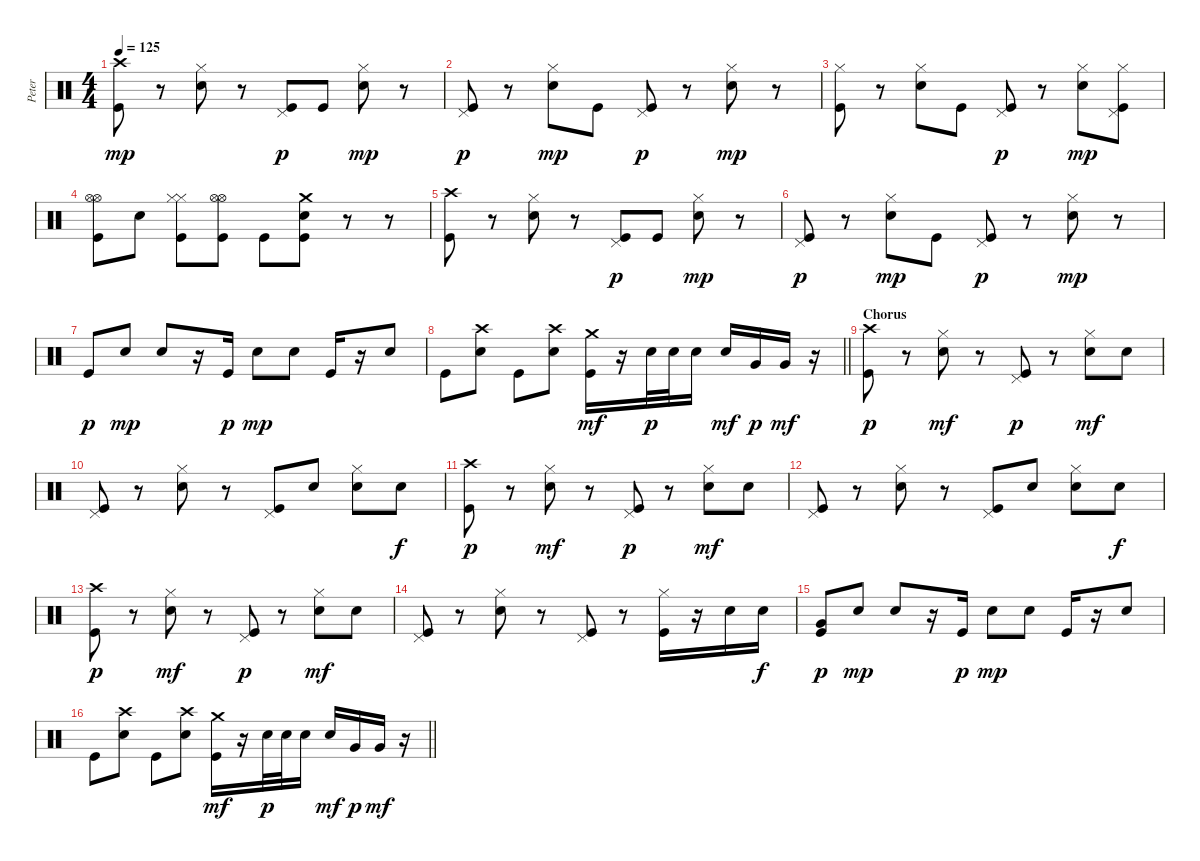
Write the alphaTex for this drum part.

\track ("Peter" "Peter") {instrument percussion}
\staff {score}
\articulation defaults
\ts (4 4)
\tempo 125
\clef neutral
\ks c
("Crash high (hit)" "Kick (hit)").8{dy mp} r.8 ("Hi-Hat (closed)" "Snare (hit) 2").8 r.8 ("Pedal Hi-Hat (hit)" "Kick (hit)").8{dy p} "Kick (hit)".8 ("Hi-Hat (closed)" "Snare (hit) 2").8{dy mp} r.8 |
("Pedal Hi-Hat (hit)" "Kick (hit)").8{dy p} r.8 ("Hi-Hat (closed)" "Snare (hit) 2").8{dy mp} "Kick (hit)".8 ("Pedal Hi-Hat (hit)" "Kick (hit)").8{dy p} r.8 ("Hi-Hat (closed)" "Snare (hit) 2").8{dy mp} r.8 |
("Hi-Hat (closed)" "Kick (hit)").8 r.8 ("Hi-Hat (closed)" "Snare (hit) 2").8 "Kick (hit)".8 ("Pedal Hi-Hat (hit)" "Kick (hit)").8{dy p} r.8 ("Hi-Hat (closed)" "Snare (hit) 2").8{dy mp} ("Hi-Hat (closed)" "Pedal Hi-Hat (hit)" "Kick (hit)").8 |
("Hi-Hat (open)" "Hi-Hat (open)" "Kick (hit)").8 "Snare (hit) 2".8 ("Hi-Hat (closed)" "Hi-Hat (closed)" "Kick (hit)").8 ("Hi-Hat (open)" "Hi-Hat (open)" "Kick (hit)").8 "Kick (hit)".8 ("Crash medium (hit)" "Snare (hit) 2" "Kick (hit)").8 r.8 r.8 |
("Crash high (hit)" "Kick (hit)").8 r.8 ("Hi-Hat (closed)" "Snare (hit) 2").8 r.8 ("Pedal Hi-Hat (hit)" "Kick (hit)").8{dy p} "Kick (hit)".8 ("Hi-Hat (closed)" "Snare (hit) 2").8{dy mp} r.8 |
("Pedal Hi-Hat (hit)" "Kick (hit)").8{dy p} r.8 ("Hi-Hat (closed)" "Snare (hit) 2").8{dy mp} "Kick (hit)".8 ("Pedal Hi-Hat (hit)" "Kick (hit)").8{dy p} r.8 ("Hi-Hat (closed)" "Snare (hit) 2").8{dy mp} r.8 |
"Kick (hit)".8{dy p} "Snare (hit) 2".8{dy mp} "Snare (hit) 2".8 r.16 "Kick (hit)".16{dy p} "Snare (hit) 2".8{dy mp} "Snare (hit) 2".8 "Kick (hit)".16 r.16 "Snare (hit) 2".8 |
\barLineRight lightlight "Kick (hit)".8
("Crash high (hit)" "Snare (hit) 2").8 "Kick (hit)".8 ("Crash high (hit)" "Snare (hit) 2").8 ("Crash medium (hit)" "Kick (hit)").16{dy mf} r.16 "Snare (hit) 2".32{dy p} "Snare (hit) 2".32 "Snare (hit) 2".16 "Snare (hit) 2".16{dy mf} "Very Low Tom (hit)".16{dy p} "Very Low Tom (hit)".16{dy mf} r.16 |
\section ("" "Chorus")
("Crash high (hit)" "Kick (hit)").8{dy p} r.8 ("Hi-Hat (closed)" "Snare (hit) 2").8{dy mf} r.8 ("Pedal Hi-Hat (hit)" "Kick (hit)").8{dy p} r.8 ("Hi-Hat (closed)" "Snare (hit) 2").8{dy mf} "Snare (hit) 2".8 |
("Pedal Hi-Hat (hit)" "Kick (hit)").8 r.8 ("Hi-Hat (closed)" "Snare (hit) 2").8 r.8 ("Pedal Hi-Hat (hit)" "Kick (hit)").8 "Snare (hit) 2".8 ("Hi-Hat (closed)" "Snare (hit) 2").8 "Snare (hit) 2".8{dy f} |
("Crash high (hit)" "Kick (hit)").8{dy p} r.8 ("Hi-Hat (closed)" "Snare (hit) 2").8{dy mf} r.8 ("Pedal Hi-Hat (hit)" "Kick (hit)").8{dy p} r.8 ("Hi-Hat (closed)" "Snare (hit) 2").8{dy mf} "Snare (hit) 2".8 |
("Pedal Hi-Hat (hit)" "Kick (hit)").8 r.8 ("Hi-Hat (closed)" "Snare (hit) 2").8 r.8 ("Pedal Hi-Hat (hit)" "Kick (hit)").8 "Snare (hit) 2".8 ("Hi-Hat (closed)" "Snare (hit) 2").8 "Snare (hit) 2".8{dy f} |
("Crash high (hit)" "Kick (hit)").8{dy p} r.8 ("Hi-Hat (closed)" "Snare (hit) 2").8{dy mf} r.8 ("Pedal Hi-Hat (hit)" "Kick (hit)").8{dy p} r.8 ("Hi-Hat (closed)" "Snare (hit) 2").8{dy mf} "Snare (hit) 2".8 |
("Pedal Hi-Hat (hit)" "Kick (hit)").8 r.8 ("Hi-Hat (closed)" "Snare (hit) 2").8 r.8 ("Pedal Hi-Hat (hit)" "Kick (hit)").8 r.8 ("Hi-Hat (closed)" "Kick (hit)").16 r.16 "Snare (hit) 2".16 "Snare (hit) 2".16{dy f} |
("Very Low Tom (hit)" "Kick (hit)").8{dy p} "Snare (hit) 2".8{dy mp} "Snare (hit) 2".8 r.16 "Kick (hit)".16{dy p} "Snare (hit) 2".8{dy mp} "Snare (hit) 2".8 "Kick (hit)".16 r.16 "Snare (hit) 2".8 |
\barLineRight lightlight "Kick (hit)".8
("Crash high (hit)" "Snare (hit) 2").8 "Kick (hit)".8 ("Crash high (hit)" "Snare (hit) 2").8 ("Crash medium (hit)" "Kick (hit)").16{dy mf} r.16 "Snare (hit) 2".32{dy p} "Snare (hit) 2".32 "Snare (hit) 2".16 "Snare (hit) 2".16{dy mf} "Very Low Tom (hit)".16{dy p} "Very Low Tom (hit)".16{dy mf} r.16
